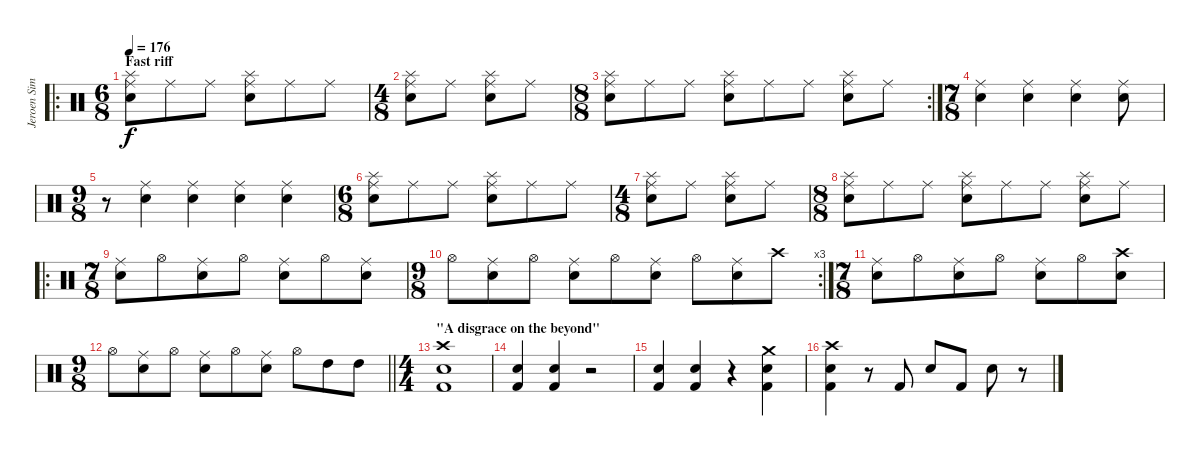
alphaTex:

\track ("Jeroen Simons" "Jeroen Sim") {instrument percussion}
\staff {score}
\articulation defaults
\ro
\ts (6 8)
\section ("" "Fast riff")
\tempo 176
\clef neutral
\ks c
("Ride (middle)" "Splash (hit)" "Electric Snare (hit)").8{dy f} "Ride (middle)".8 "Ride (middle)".8 ("Ride (middle)" "Splash (hit)" "Electric Snare (hit)").8 "Ride (middle)".8 "Ride (middle)".8 |
\ts (4 8)
("Ride (middle)" "Splash (hit)" "Electric Snare (hit)").8 "Ride (middle)".8 ("Ride (middle)" "Splash (hit)" "Electric Snare (hit)").8 "Ride (middle)".8 |
\rc 2
\ts (8 8)
("Ride (middle)" "Splash (hit)" "Electric Snare (hit)").8 "Ride (middle)".8 "Ride (middle)".8 ("Ride (middle)" "Splash (hit)" "Electric Snare (hit)").8 "Ride (middle)".8 "Ride (middle)".8 ("Ride (middle)" "Splash (hit)" "Electric Snare (hit)").8 "Ride (middle)".8 |
\ts (7 8)
("Ride (middle)" "Electric Snare (hit)").4 ("Ride (middle)" "Electric Snare (hit)").4 ("Ride (middle)" "Electric Snare (hit)").4 ("Ride (middle)" "Electric Snare (hit)").8 |
\ts (9 8)
r.8 ("Ride (middle)" "Electric Snare (hit)").4 ("Ride (middle)" "Electric Snare (hit)").4 ("Ride (middle)" "Electric Snare (hit)").4 ("Ride (middle)" "Electric Snare (hit)").4 |
\ts (6 8)
("Ride (middle)" "Splash (hit)" "Electric Snare (hit)").8 "Ride (middle)".8 "Ride (middle)".8 ("Ride (middle)" "Splash (hit)" "Electric Snare (hit)").8 "Ride (middle)".8 "Ride (middle)".8 |
\ts (4 8)
("Ride (middle)" "Splash (hit)" "Electric Snare (hit)").8 "Ride (middle)".8 ("Ride (middle)" "Splash (hit)" "Electric Snare (hit)").8 "Ride (middle)".8 |
\ts (8 8)
("Ride (middle)" "Splash (hit)" "Electric Snare (hit)").8 "Ride (middle)".8 "Ride (middle)".8 ("Ride (middle)" "Splash (hit)" "Electric Snare (hit)").8 "Ride (middle)".8 "Ride (middle)".8 ("Ride (middle)" "Splash (hit)" "Electric Snare (hit)").8 "Ride (middle)".8 |
\ro
\ts (7 8)
("Ride (middle)" "Electric Snare (hit)").8 "Hi-Hat (open)".8 ("Ride (middle)" "Electric Snare (hit)").8 "Hi-Hat (open)".8 ("Ride (middle)" "Electric Snare (hit)").8 "Hi-Hat (open)".8 ("Ride (middle)" "Electric Snare (hit)").8 |
\rc 3
\ts (9 8)
"Hi-Hat (open)".8 ("Ride (middle)" "Electric Snare (hit)").8 "Hi-Hat (open)".8 ("Ride (middle)" "Electric Snare (hit)").8 "Hi-Hat (open)".8 ("Ride (middle)" "Electric Snare (hit)").8 "Hi-Hat (open)".8 ("Ride (middle)" "Electric Snare (hit)").8 "Crash high (hit)".8 |
\ts (7 8)
("Ride (middle)" "Electric Snare (hit)").8 "Hi-Hat (open)".8 ("Ride (middle)" "Electric Snare (hit)").8 "Hi-Hat (open)".8 ("Ride (middle)" "Electric Snare (hit)").8 "Hi-Hat (open)".8 ("Crash high (hit)" "Electric Snare (hit)").8 |
\ts (9 8)
\barLineRight lightlight "Hi-Hat (open)".8
("Ride (middle)" "Electric Snare (hit)").8 "Hi-Hat (open)".8 ("Ride (middle)" "Electric Snare (hit)").8 "Hi-Hat (open)".8 ("Ride (middle)" "Electric Snare (hit)").8 "Hi-Hat (open)".8 "High Tom (hit)".8 "High Tom (hit)".8 |
\ts (4 4)
\section ("" "\"A disgrace on the beyond\"")
("Crash high (hit)" "Snare (hit) 2" "Kick (hit) 2").1 |
("Snare (hit) 2" "Kick (hit) 2").4 ("Snare (hit) 2" "Kick (hit) 2").4 r.2 |
("Snare (hit) 2" "Kick (hit) 2").4 ("Snare (hit) 2" "Kick (hit) 2").4 r.4 ("Crash medium (hit)" "Snare (hit) 2" "Kick (hit) 2").4 |
("Crash high (hit)" "Snare (hit) 2" "Kick (hit) 2").4 r.8 "Kick (hit) 2".8 "Electric Snare (hit)".8 "Kick (hit) 2".8 "Electric Snare (hit)".8 r.8
